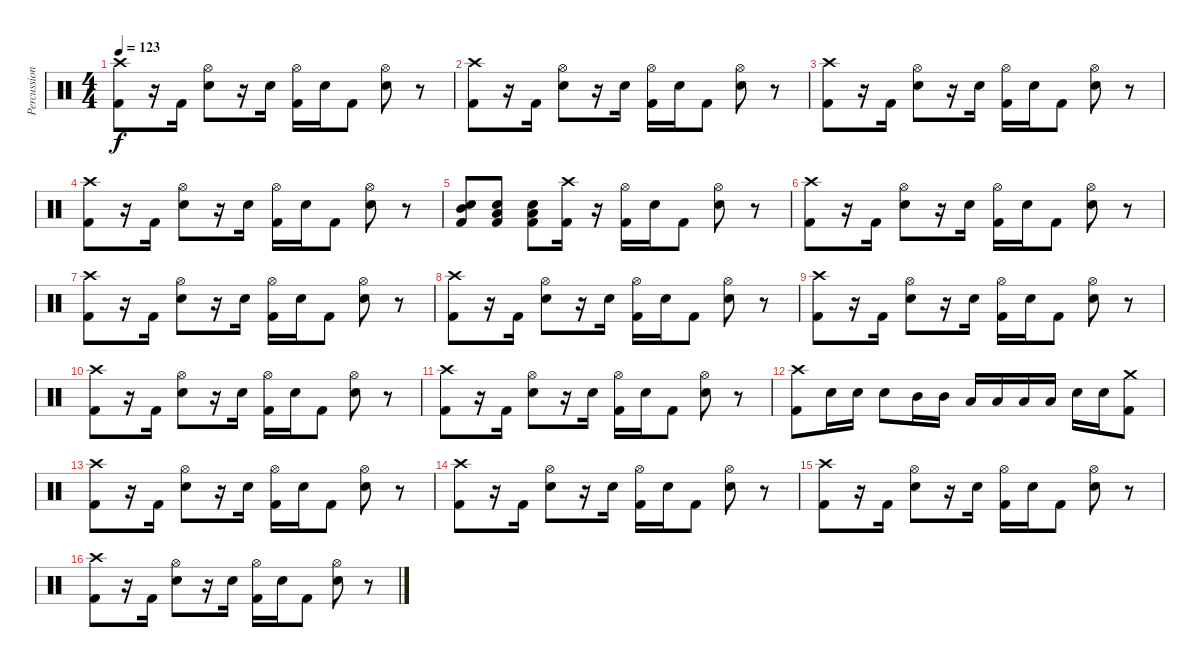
\track ("Percussioni" "Percussion") {instrument percussion}
\staff {score}
\articulation defaults
\ts (4 4)
\tempo 123
\clef neutral
\ks c
("Crash high (hit)" "Kick (hit) 2").8{dy f} r.16 "Kick (hit) 2".16 ("Hi-Hat (open)" "Electric Snare (hit)").8 r.16 "Electric Snare (hit)".16 ("Hi-Hat (open)" "Kick (hit) 2").16 "Electric Snare (hit)".16 "Kick (hit) 2".8 ("Hi-Hat (open)" "Electric Snare (hit)").8 r.8 |
("Crash high (hit)" "Kick (hit) 2").8 r.16 "Kick (hit) 2".16 ("Hi-Hat (open)" "Electric Snare (hit)").8 r.16 "Electric Snare (hit)".16 ("Hi-Hat (open)" "Kick (hit) 2").16 "Electric Snare (hit)".16 "Kick (hit) 2".8 ("Hi-Hat (open)" "Electric Snare (hit)").8 r.8 |
("Crash high (hit)" "Kick (hit) 2").8 r.16 "Kick (hit) 2".16 ("Hi-Hat (open)" "Electric Snare (hit)").8 r.16 "Electric Snare (hit)".16 ("Hi-Hat (open)" "Kick (hit) 2").16 "Electric Snare (hit)".16 "Kick (hit) 2".8 ("Hi-Hat (open)" "Electric Snare (hit)").8 r.8 |
("Crash high (hit)" "Kick (hit) 2").8 r.16 "Kick (hit) 2".16 ("Hi-Hat (open)" "Electric Snare (hit)").8 r.16 "Electric Snare (hit)".16 ("Hi-Hat (open)" "Kick (hit) 2").16 "Electric Snare (hit)".16 "Kick (hit) 2".8 ("Hi-Hat (open)" "Electric Snare (hit)").8 r.8 |
("Kick (hit) 2" "Mid Tom (hit)" "Electric Snare (hit)").8 ("Kick (hit) 2" "Low Tom (hit)" "Electric Snare (hit)").8 ("Low Floor Tom (hit)" "Electric Snare (hit)" "Kick (hit) 2").8 ("Crash high (hit)" "Kick (hit) 2").16 r.16 ("Hi-Hat (open)" "Kick (hit) 2").16 "Electric Snare (hit)".16 "Kick (hit) 2".8 ("Hi-Hat (open)" "Electric Snare (hit)").8 r.8 |
("Crash high (hit)" "Kick (hit) 2").8 r.16 "Kick (hit) 2".16 ("Hi-Hat (open)" "Electric Snare (hit)").8 r.16 "Electric Snare (hit)".16 ("Hi-Hat (open)" "Kick (hit) 2").16 "Electric Snare (hit)".16 "Kick (hit) 2".8 ("Hi-Hat (open)" "Electric Snare (hit)").8 r.8 |
("Crash high (hit)" "Kick (hit) 2").8 r.16 "Kick (hit) 2".16 ("Hi-Hat (open)" "Electric Snare (hit)").8 r.16 "Electric Snare (hit)".16 ("Hi-Hat (open)" "Kick (hit) 2").16 "Electric Snare (hit)".16 "Kick (hit) 2".8 ("Hi-Hat (open)" "Electric Snare (hit)").8 r.8 |
("Crash high (hit)" "Kick (hit) 2").8 r.16 "Kick (hit) 2".16 ("Hi-Hat (open)" "Electric Snare (hit)").8 r.16 "Electric Snare (hit)".16 ("Hi-Hat (open)" "Kick (hit) 2").16 "Electric Snare (hit)".16 "Kick (hit) 2".8 ("Hi-Hat (open)" "Electric Snare (hit)").8 r.8 |
("Crash high (hit)" "Kick (hit) 2").8 r.16 "Kick (hit) 2".16 ("Hi-Hat (open)" "Electric Snare (hit)").8 r.16 "Electric Snare (hit)".16 ("Hi-Hat (open)" "Kick (hit) 2").16 "Electric Snare (hit)".16 "Kick (hit) 2".8 ("Hi-Hat (open)" "Electric Snare (hit)").8 r.8 |
("Crash high (hit)" "Kick (hit) 2").8 r.16 "Kick (hit) 2".16 ("Hi-Hat (open)" "Electric Snare (hit)").8 r.16 "Electric Snare (hit)".16 ("Hi-Hat (open)" "Kick (hit) 2").16 "Electric Snare (hit)".16 "Kick (hit) 2".8 ("Hi-Hat (open)" "Electric Snare (hit)").8 r.8 |
("Crash high (hit)" "Kick (hit) 2").8 r.16 "Kick (hit) 2".16 ("Hi-Hat (open)" "Electric Snare (hit)").8 r.16 "Electric Snare (hit)".16 ("Hi-Hat (open)" "Kick (hit) 2").16 "Electric Snare (hit)".16 "Kick (hit) 2".8 ("Hi-Hat (open)" "Electric Snare (hit)").8 r.8 |
("Crash high (hit)" "Kick (hit) 2").8 "Electric Snare (hit)".16 "Electric Snare (hit)".16 "Electric Snare (hit)".8 "Mid Tom (hit)".16 "Mid Tom (hit)".16 "Low Tom (hit)".16 "Low Tom (hit)".16 "Low Floor Tom (hit)".16 "Low Floor Tom (hit)".16 "Electric Snare (hit)".16 "Electric Snare (hit)".16 ("Crash medium (hit)" "Kick (hit) 2").8 |
("Crash high (hit)" "Kick (hit) 2").8 r.16 "Kick (hit) 2".16 ("Hi-Hat (open)" "Electric Snare (hit)").8 r.16 "Electric Snare (hit)".16 ("Hi-Hat (open)" "Kick (hit) 2").16 "Electric Snare (hit)".16 "Kick (hit) 2".8 ("Hi-Hat (open)" "Electric Snare (hit)").8 r.8 |
("Crash high (hit)" "Kick (hit) 2").8 r.16 "Kick (hit) 2".16 ("Hi-Hat (open)" "Electric Snare (hit)").8 r.16 "Electric Snare (hit)".16 ("Hi-Hat (open)" "Kick (hit) 2").16 "Electric Snare (hit)".16 "Kick (hit) 2".8 ("Hi-Hat (open)" "Electric Snare (hit)").8 r.8 |
("Crash high (hit)" "Kick (hit) 2").8 r.16 "Kick (hit) 2".16 ("Hi-Hat (open)" "Electric Snare (hit)").8 r.16 "Electric Snare (hit)".16 ("Hi-Hat (open)" "Kick (hit) 2").16 "Electric Snare (hit)".16 "Kick (hit) 2".8 ("Hi-Hat (open)" "Electric Snare (hit)").8 r.8 |
("Crash high (hit)" "Kick (hit) 2").8 r.16 "Kick (hit) 2".16 ("Hi-Hat (open)" "Electric Snare (hit)").8 r.16 "Electric Snare (hit)".16 ("Hi-Hat (open)" "Kick (hit) 2").16 "Electric Snare (hit)".16 "Kick (hit) 2".8 ("Hi-Hat (open)" "Electric Snare (hit)").8 r.8
